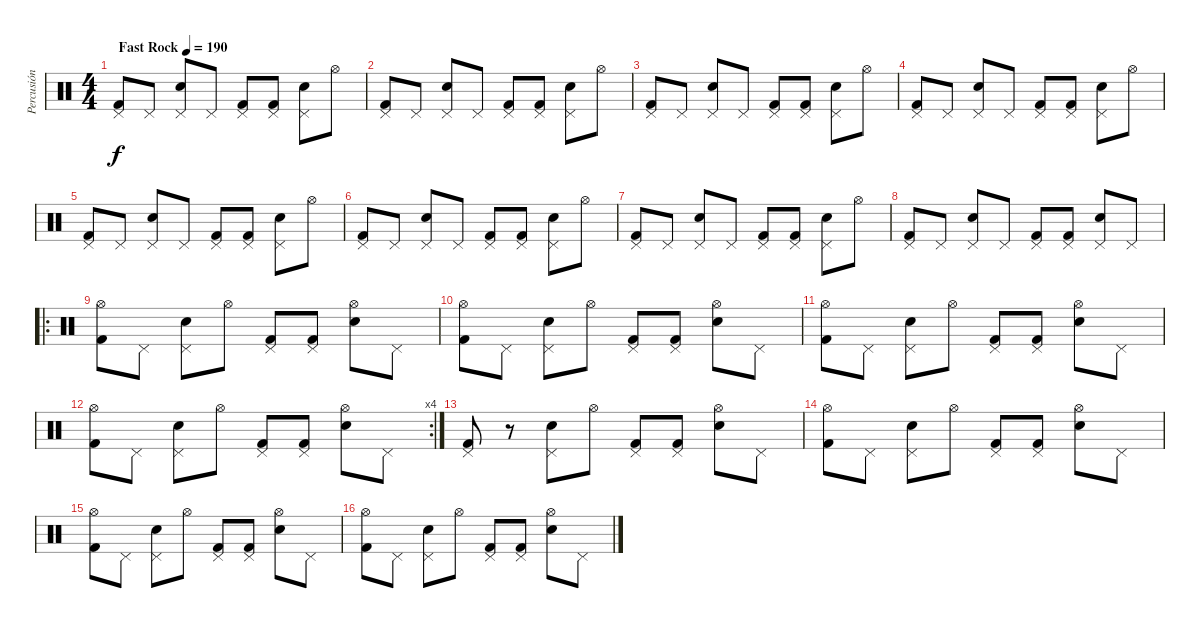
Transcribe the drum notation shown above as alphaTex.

\track ("Percusión" "Percusión") {instrument percussion}
\staff {score}
\articulation defaults
\ts (4 4)
\tempo (190 "Fast Rock")
\tempo 180
\tempo (190 "Fast Rock")
\clef neutral
\ks c
("Pedal Hi-Hat (hit)" "Kick (hit) 2").8{dy f} "Pedal Hi-Hat (hit)".8 ("Pedal Hi-Hat (hit)" "Snare (hit) 2").8 "Pedal Hi-Hat (hit)".8 ("Pedal Hi-Hat (hit)" "Kick (hit) 2").8 ("Pedal Hi-Hat (hit)" "Kick (hit) 2").8 ("Pedal Hi-Hat (hit)" "Snare (hit) 2").8 "Hi-Hat (open)".8 |
("Pedal Hi-Hat (hit)" "Kick (hit) 2").8 "Pedal Hi-Hat (hit)".8 ("Pedal Hi-Hat (hit)" "Snare (hit) 2").8 "Pedal Hi-Hat (hit)".8 ("Pedal Hi-Hat (hit)" "Kick (hit) 2").8 ("Pedal Hi-Hat (hit)" "Kick (hit) 2").8 ("Pedal Hi-Hat (hit)" "Snare (hit) 2").8 "Hi-Hat (open)".8 |
("Pedal Hi-Hat (hit)" "Kick (hit) 2").8 "Pedal Hi-Hat (hit)".8 ("Pedal Hi-Hat (hit)" "Snare (hit) 2").8 "Pedal Hi-Hat (hit)".8 ("Pedal Hi-Hat (hit)" "Kick (hit) 2").8 ("Pedal Hi-Hat (hit)" "Kick (hit) 2").8 ("Pedal Hi-Hat (hit)" "Snare (hit) 2").8 "Hi-Hat (open)".8 |
("Pedal Hi-Hat (hit)" "Kick (hit) 2").8 "Pedal Hi-Hat (hit)".8 ("Pedal Hi-Hat (hit)" "Snare (hit) 2").8 "Pedal Hi-Hat (hit)".8 ("Pedal Hi-Hat (hit)" "Kick (hit) 2").8 ("Pedal Hi-Hat (hit)" "Kick (hit) 2").8 ("Pedal Hi-Hat (hit)" "Snare (hit) 2").8 "Hi-Hat (open)".8 |
("Pedal Hi-Hat (hit)" "Kick (hit) 2").8 "Pedal Hi-Hat (hit)".8 ("Pedal Hi-Hat (hit)" "Snare (hit) 2").8 "Pedal Hi-Hat (hit)".8 ("Pedal Hi-Hat (hit)" "Kick (hit) 2").8 ("Pedal Hi-Hat (hit)" "Kick (hit) 2").8 ("Pedal Hi-Hat (hit)" "Snare (hit) 2").8 "Hi-Hat (open)".8 |
("Pedal Hi-Hat (hit)" "Kick (hit) 2").8 "Pedal Hi-Hat (hit)".8 ("Pedal Hi-Hat (hit)" "Snare (hit) 2").8 "Pedal Hi-Hat (hit)".8 ("Pedal Hi-Hat (hit)" "Kick (hit) 2").8 ("Pedal Hi-Hat (hit)" "Kick (hit) 2").8 ("Pedal Hi-Hat (hit)" "Snare (hit) 2").8 "Hi-Hat (open)".8 |
("Pedal Hi-Hat (hit)" "Kick (hit) 2").8 "Pedal Hi-Hat (hit)".8 ("Pedal Hi-Hat (hit)" "Snare (hit) 2").8 "Pedal Hi-Hat (hit)".8 ("Pedal Hi-Hat (hit)" "Kick (hit) 2").8 ("Pedal Hi-Hat (hit)" "Kick (hit) 2").8 ("Pedal Hi-Hat (hit)" "Snare (hit) 2").8 "Hi-Hat (open)".8 |
("Pedal Hi-Hat (hit)" "Kick (hit) 2").8 "Pedal Hi-Hat (hit)".8 ("Pedal Hi-Hat (hit)" "Snare (hit) 2").8 "Pedal Hi-Hat (hit)".8 ("Pedal Hi-Hat (hit)" "Kick (hit) 2").8 ("Pedal Hi-Hat (hit)" "Kick (hit) 2").8 ("Pedal Hi-Hat (hit)" "Snare (hit) 2").8 "Pedal Hi-Hat (hit)".8 |
\ro
("Hi-Hat (open)" "Kick (hit) 2").8 "Pedal Hi-Hat (hit)".8 ("Pedal Hi-Hat (hit)" "Snare (hit) 2").8 "Hi-Hat (open)".8 ("Pedal Hi-Hat (hit)" "Kick (hit) 2").8 ("Pedal Hi-Hat (hit)" "Kick (hit) 2").8 ("Hi-Hat (open)" "Snare (hit) 2").8 "Pedal Hi-Hat (hit)".8 |
("Hi-Hat (open)" "Kick (hit) 2").8 "Pedal Hi-Hat (hit)".8 ("Pedal Hi-Hat (hit)" "Snare (hit) 2").8 "Hi-Hat (open)".8 ("Pedal Hi-Hat (hit)" "Kick (hit) 2").8 ("Pedal Hi-Hat (hit)" "Kick (hit) 2").8 ("Hi-Hat (open)" "Snare (hit) 2").8 "Pedal Hi-Hat (hit)".8 |
("Hi-Hat (open)" "Kick (hit) 2").8 "Pedal Hi-Hat (hit)".8 ("Pedal Hi-Hat (hit)" "Snare (hit) 2").8 "Hi-Hat (open)".8 ("Pedal Hi-Hat (hit)" "Kick (hit) 2").8 ("Pedal Hi-Hat (hit)" "Kick (hit) 2").8 ("Hi-Hat (open)" "Snare (hit) 2").8 "Pedal Hi-Hat (hit)".8 |
\rc 4
("Hi-Hat (open)" "Kick (hit) 2").8 "Pedal Hi-Hat (hit)".8 ("Pedal Hi-Hat (hit)" "Snare (hit) 2").8 "Hi-Hat (open)".8 ("Pedal Hi-Hat (hit)" "Kick (hit) 2").8 ("Pedal Hi-Hat (hit)" "Kick (hit) 2").8 ("Hi-Hat (open)" "Snare (hit) 2").8 "Pedal Hi-Hat (hit)".8 |
("Pedal Hi-Hat (hit)" "Kick (hit) 2").8 r.8 ("Pedal Hi-Hat (hit)" "Snare (hit) 2").8 "Hi-Hat (open)".8 ("Pedal Hi-Hat (hit)" "Kick (hit) 2").8 ("Pedal Hi-Hat (hit)" "Kick (hit) 2").8 ("Hi-Hat (open)" "Snare (hit) 2").8 "Pedal Hi-Hat (hit)".8 |
("Hi-Hat (open)" "Kick (hit) 2").8 "Pedal Hi-Hat (hit)".8 ("Pedal Hi-Hat (hit)" "Snare (hit) 2").8 "Hi-Hat (open)".8 ("Pedal Hi-Hat (hit)" "Kick (hit) 2").8 ("Pedal Hi-Hat (hit)" "Kick (hit) 2").8 ("Hi-Hat (open)" "Snare (hit) 2").8 "Pedal Hi-Hat (hit)".8 |
("Hi-Hat (open)" "Kick (hit) 2").8 "Pedal Hi-Hat (hit)".8 ("Pedal Hi-Hat (hit)" "Snare (hit) 2").8 "Hi-Hat (open)".8 ("Pedal Hi-Hat (hit)" "Kick (hit) 2").8 ("Pedal Hi-Hat (hit)" "Kick (hit) 2").8 ("Hi-Hat (open)" "Snare (hit) 2").8 "Pedal Hi-Hat (hit)".8 |
("Hi-Hat (open)" "Kick (hit) 2").8 "Pedal Hi-Hat (hit)".8 ("Pedal Hi-Hat (hit)" "Snare (hit) 2").8 "Hi-Hat (open)".8 ("Pedal Hi-Hat (hit)" "Kick (hit) 2").8 ("Pedal Hi-Hat (hit)" "Kick (hit) 2").8 ("Hi-Hat (open)" "Snare (hit) 2").8 "Pedal Hi-Hat (hit)".8
